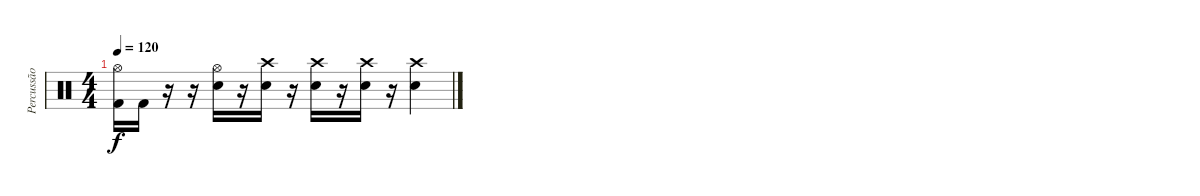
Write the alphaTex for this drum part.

\track ("Percussão" "Percussão") {instrument percussion}
\staff {score}
\articulation defaults
\ts (4 4)
\tempo 120
\clef neutral
\ks c
("Hi-Hat (open)" "Kick (hit) 2").16{dy f} "Kick (hit) 2".16 r.16 r.16 ("Hi-Hat (open)" "Electric Snare (hit)").16 r.16 ("Crash high (hit)" "Electric Snare (hit)").16 r.16 ("Crash high (hit)" "Electric Snare (hit)").16 r.16 ("Crash high (hit)" "Electric Snare (hit)").16 r.16 ("Crash high (hit)" "Electric Snare (hit)").4
